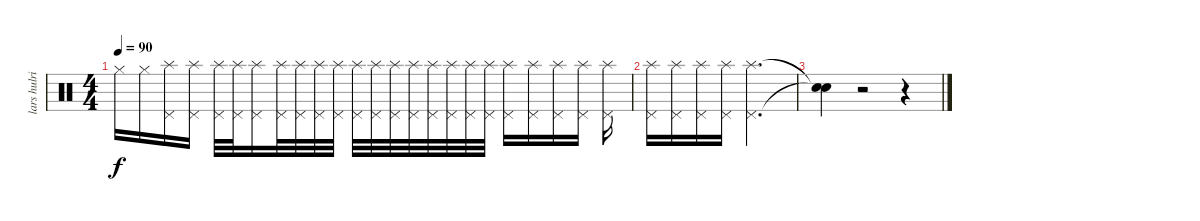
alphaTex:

\track ("lars hulrich" "lars hulri") {instrument percussion}
\staff {score}
\articulation defaults
\ts (4 4)
\tempo 90
\clef neutral
\ks c "Hi-Hat (closed)".16{dy f} "Hi-Hat (closed)".16
("Splash (hit)" "Pedal Hi-Hat (hit)").16 ("Splash (hit)" "Pedal Hi-Hat (hit)").16 ("Splash (hit)" "Pedal Hi-Hat (hit)").32 ("Splash (hit)" "Pedal Hi-Hat (hit)").32 ("Splash (hit)" "Pedal Hi-Hat (hit)").16 ("Splash (hit)" "Pedal Hi-Hat (hit)").32 ("Splash (hit)" "Pedal Hi-Hat (hit)").32 ("Splash (hit)" "Pedal Hi-Hat (hit)").32 ("Splash (hit)" "Pedal Hi-Hat (hit)").32 ("Splash (hit)" "Pedal Hi-Hat (hit)").32 ("Splash (hit)" "Pedal Hi-Hat (hit)").32 ("Splash (hit)" "Pedal Hi-Hat (hit)").32 ("Splash (hit)" "Pedal Hi-Hat (hit)").32 ("Splash (hit)" "Pedal Hi-Hat (hit)").32 ("Splash (hit)" "Pedal Hi-Hat (hit)").32 ("Splash (hit)" "Pedal Hi-Hat (hit)").32 ("Splash (hit)" "Pedal Hi-Hat (hit)").32 ("Splash (hit)" "Pedal Hi-Hat (hit)").16 ("Splash (hit)" "Pedal Hi-Hat (hit)").16 ("Splash (hit)" "Pedal Hi-Hat (hit)").16 ("Splash (hit)" "Pedal Hi-Hat (hit)").16 ("Splash (hit)" "Pedal Hi-Hat (hit)").16 |
("Splash (hit)" "Pedal Hi-Hat (hit)").16 ("Splash (hit)" "Pedal Hi-Hat (hit)").16 ("Splash (hit)" "Pedal Hi-Hat (hit)").16 ("Splash (hit)" "Pedal Hi-Hat (hit)").16 ("Splash (hit)" "Pedal Hi-Hat (hit)").2{d} |
("Snare (hit)"{t} "Snare (hit)"{t}).4 r.2 r.4
